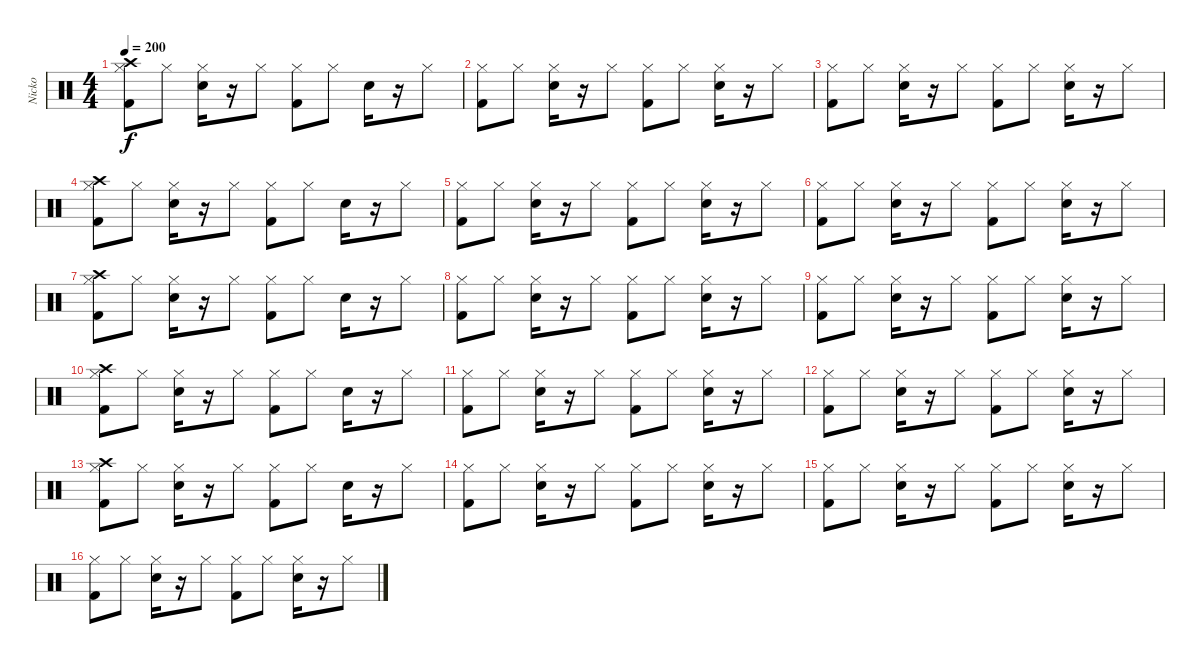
\track ("Nicko" "Nicko") {instrument percussion}
\staff {score}
\articulation defaults
\ts (4 4)
\tempo 200
\clef neutral
\ks c
("Kick (hit) 2" "Hi-Hat (closed)" "Crash high (hit)").8{dy f} "Hi-Hat (closed)".8 ("Snare (hit) 2" "Hi-Hat (closed)").16 r.16 "Hi-Hat (closed)".8 ("Kick (hit) 2" "Hi-Hat (closed)").8 "Hi-Hat (closed)".8 "Snare (hit) 2".16 r.16 "Hi-Hat (closed)".8 |
("Kick (hit) 2" "Hi-Hat (closed)").8 "Hi-Hat (closed)".8 ("Snare (hit) 2" "Hi-Hat (closed)").16 r.16 "Hi-Hat (closed)".8 ("Kick (hit) 2" "Hi-Hat (closed)").8 "Hi-Hat (closed)".8 ("Snare (hit) 2" "Hi-Hat (closed)").16 r.16 "Hi-Hat (closed)".8 |
("Kick (hit) 2" "Hi-Hat (closed)").8 "Hi-Hat (closed)".8 ("Snare (hit) 2" "Hi-Hat (closed)").16 r.16 "Hi-Hat (closed)".8 ("Kick (hit) 2" "Hi-Hat (closed)").8 "Hi-Hat (closed)".8 ("Snare (hit) 2" "Hi-Hat (closed)").16 r.16 "Hi-Hat (closed)".8 |
("Kick (hit) 2" "Hi-Hat (closed)" "Crash high (hit)").8 "Hi-Hat (closed)".8 ("Snare (hit) 2" "Hi-Hat (closed)").16 r.16 "Hi-Hat (closed)".8 ("Kick (hit) 2" "Hi-Hat (closed)").8 "Hi-Hat (closed)".8 "Snare (hit) 2".16 r.16 "Hi-Hat (closed)".8 |
("Kick (hit) 2" "Hi-Hat (closed)").8 "Hi-Hat (closed)".8 ("Snare (hit) 2" "Hi-Hat (closed)").16 r.16 "Hi-Hat (closed)".8 ("Kick (hit) 2" "Hi-Hat (closed)").8 "Hi-Hat (closed)".8 ("Snare (hit) 2" "Hi-Hat (closed)").16 r.16 "Hi-Hat (closed)".8 |
("Kick (hit) 2" "Hi-Hat (closed)").8 "Hi-Hat (closed)".8 ("Snare (hit) 2" "Hi-Hat (closed)").16 r.16 "Hi-Hat (closed)".8 ("Kick (hit) 2" "Hi-Hat (closed)").8 "Hi-Hat (closed)".8 ("Snare (hit) 2" "Hi-Hat (closed)").16 r.16 "Hi-Hat (closed)".8 |
("Kick (hit) 2" "Hi-Hat (closed)" "Crash high (hit)").8 "Hi-Hat (closed)".8 ("Snare (hit) 2" "Hi-Hat (closed)").16 r.16 "Hi-Hat (closed)".8 ("Kick (hit) 2" "Hi-Hat (closed)").8 "Hi-Hat (closed)".8 "Snare (hit) 2".16 r.16 "Hi-Hat (closed)".8 |
("Kick (hit) 2" "Hi-Hat (closed)").8 "Hi-Hat (closed)".8 ("Snare (hit) 2" "Hi-Hat (closed)").16 r.16 "Hi-Hat (closed)".8 ("Kick (hit) 2" "Hi-Hat (closed)").8 "Hi-Hat (closed)".8 ("Snare (hit) 2" "Hi-Hat (closed)").16 r.16 "Hi-Hat (closed)".8 |
("Kick (hit) 2" "Hi-Hat (closed)").8 "Hi-Hat (closed)".8 ("Snare (hit) 2" "Hi-Hat (closed)").16 r.16 "Hi-Hat (closed)".8 ("Kick (hit) 2" "Hi-Hat (closed)").8 "Hi-Hat (closed)".8 ("Snare (hit) 2" "Hi-Hat (closed)").16 r.16 "Hi-Hat (closed)".8 |
("Kick (hit) 2" "Hi-Hat (closed)" "Crash high (hit)").8 "Hi-Hat (closed)".8 ("Snare (hit) 2" "Hi-Hat (closed)").16 r.16 "Hi-Hat (closed)".8 ("Kick (hit) 2" "Hi-Hat (closed)").8 "Hi-Hat (closed)".8 "Snare (hit) 2".16 r.16 "Hi-Hat (closed)".8 |
("Kick (hit) 2" "Hi-Hat (closed)").8 "Hi-Hat (closed)".8 ("Snare (hit) 2" "Hi-Hat (closed)").16 r.16 "Hi-Hat (closed)".8 ("Kick (hit) 2" "Hi-Hat (closed)").8 "Hi-Hat (closed)".8 ("Snare (hit) 2" "Hi-Hat (closed)").16 r.16 "Hi-Hat (closed)".8 |
("Kick (hit) 2" "Hi-Hat (closed)").8 "Hi-Hat (closed)".8 ("Snare (hit) 2" "Hi-Hat (closed)").16 r.16 "Hi-Hat (closed)".8 ("Kick (hit) 2" "Hi-Hat (closed)").8 "Hi-Hat (closed)".8 ("Snare (hit) 2" "Hi-Hat (closed)").16 r.16 "Hi-Hat (closed)".8 |
("Kick (hit) 2" "Hi-Hat (closed)" "Crash high (hit)").8 "Hi-Hat (closed)".8 ("Snare (hit) 2" "Hi-Hat (closed)").16 r.16 "Hi-Hat (closed)".8 ("Kick (hit) 2" "Hi-Hat (closed)").8 "Hi-Hat (closed)".8 "Snare (hit) 2".16 r.16 "Hi-Hat (closed)".8 |
("Kick (hit) 2" "Hi-Hat (closed)").8 "Hi-Hat (closed)".8 ("Snare (hit) 2" "Hi-Hat (closed)").16 r.16 "Hi-Hat (closed)".8 ("Kick (hit) 2" "Hi-Hat (closed)").8 "Hi-Hat (closed)".8 ("Snare (hit) 2" "Hi-Hat (closed)").16 r.16 "Hi-Hat (closed)".8 |
("Kick (hit) 2" "Hi-Hat (closed)").8 "Hi-Hat (closed)".8 ("Snare (hit) 2" "Hi-Hat (closed)").16 r.16 "Hi-Hat (closed)".8 ("Kick (hit) 2" "Hi-Hat (closed)").8 "Hi-Hat (closed)".8 ("Snare (hit) 2" "Hi-Hat (closed)").16 r.16 "Hi-Hat (closed)".8 |
("Kick (hit) 2" "Hi-Hat (closed)").8 "Hi-Hat (closed)".8 ("Snare (hit) 2" "Hi-Hat (closed)").16 r.16 "Hi-Hat (closed)".8 ("Kick (hit) 2" "Hi-Hat (closed)").8 "Hi-Hat (closed)".8 ("Snare (hit) 2" "Hi-Hat (closed)").16 r.16 "Hi-Hat (closed)".8
